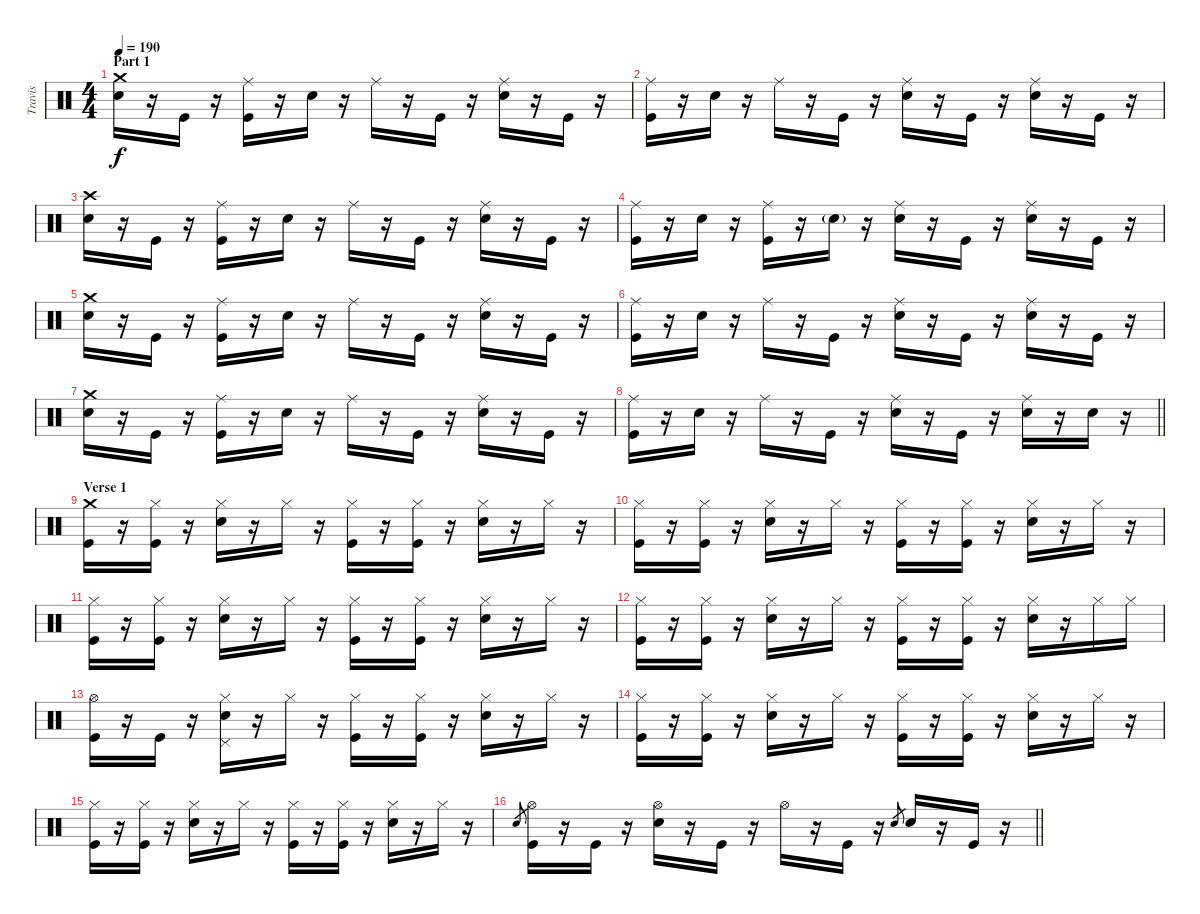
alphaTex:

\track ("Travis" "Travis") {instrument percussion}
\staff {score}
\articulation defaults
\ts (4 4)
\section ("" "Part 1")
\tempo 190
\clef neutral
\ks c
("Crash medium (hit)" "Snare (hit) 2").16{dy f} r.16 "Kick (hit)".16 r.16 ("Ride (middle)" "Kick (hit)").16 r.16 "Snare (hit) 2".16 r.16 "Ride (middle)".16 r.16 "Kick (hit)".16 r.16 ("Ride (middle)" "Snare (hit) 2").16 r.16 "Kick (hit)".16 r.16 |
("Ride (middle)" "Kick (hit)").16 r.16 "Snare (hit) 2".16 r.16 "Ride (middle)".16 r.16 "Kick (hit)".16 r.16 ("Ride (middle)" "Snare (hit) 2").16 r.16 "Kick (hit)".16 r.16 ("Ride (middle)" "Snare (hit) 2").16 r.16 "Kick (hit)".16 r.16 |
("Crash high (hit)" "Snare (hit) 2").16 r.16 "Kick (hit)".16 r.16 ("Ride (middle)" "Kick (hit)").16 r.16 "Snare (hit) 2".16 r.16 "Ride (middle)".16 r.16 "Kick (hit)".16 r.16 ("Ride (middle)" "Snare (hit) 2").16 r.16 "Kick (hit)".16 r.16 |
("Ride (middle)" "Kick (hit)").16 r.16 "Snare (hit) 2".16 r.16 ("Ride (middle)" "Kick (hit)").16 r.16 "Snare (hit) 2"{g}.16 r.16 ("Ride (middle)" "Snare (hit) 2").16 r.16 "Kick (hit)".16 r.16 ("Ride (middle)" "Snare (hit) 2").16 r.16 "Kick (hit)".16 r.16 |
("Crash medium (hit)" "Snare (hit) 2").16 r.16 "Kick (hit)".16 r.16 ("Ride (middle)" "Kick (hit)").16 r.16 "Snare (hit) 2".16 r.16 "Ride (middle)".16 r.16 "Kick (hit)".16 r.16 ("Ride (middle)" "Snare (hit) 2").16 r.16 "Kick (hit)".16 r.16 |
("Ride (middle)" "Kick (hit)").16 r.16 "Snare (hit) 2".16 r.16 "Ride (middle)".16 r.16 "Kick (hit)".16 r.16 ("Ride (middle)" "Snare (hit) 2").16 r.16 "Kick (hit)".16 r.16 ("Ride (middle)" "Snare (hit) 2").16 r.16 "Kick (hit)".16 r.16 |
("Crash medium (hit)" "Snare (hit) 2").16 r.16 "Kick (hit)".16 r.16 ("Ride (middle)" "Kick (hit)").16 r.16 "Snare (hit) 2".16 r.16 "Ride (middle)".16 r.16 "Kick (hit)".16 r.16 ("Ride (middle)" "Snare (hit) 2").16 r.16 "Kick (hit)".16 r.16 |
\barLineRight lightlight
("Ride (middle)" "Kick (hit)").16 r.16 "Snare (hit) 2".16 r.16 "Ride (middle)".16 r.16 "Kick (hit)".16 r.16 ("Ride (middle)" "Snare (hit) 2").16 r.16 "Kick (hit)".16 r.16 ("Ride (middle)" "Snare (hit) 2").16 r.16 "Snare (hit) 2".16 r.16 |
\section ("" "Verse 1")
("Crash medium (hit)" "Kick (hit)").16 r.16 ("Hi-Hat (closed)" "Kick (hit)").16 r.16 ("Hi-Hat (closed)" "Snare (hit) 2").16 r.16 "Hi-Hat (closed)".16 r.16 ("Hi-Hat (closed)" "Kick (hit)").16 r.16 ("Hi-Hat (closed)" "Kick (hit)").16 r.16 ("Hi-Hat (closed)" "Snare (hit) 2").16 r.16 "Hi-Hat (closed)".16 r.16 |
("Hi-Hat (closed)" "Kick (hit)").16 r.16 ("Hi-Hat (closed)" "Kick (hit)").16 r.16 ("Hi-Hat (closed)" "Snare (hit) 2").16 r.16 "Hi-Hat (closed)".16 r.16 ("Hi-Hat (closed)" "Kick (hit)").16 r.16 ("Hi-Hat (closed)" "Kick (hit)").16 r.16 ("Hi-Hat (closed)" "Snare (hit) 2").16 r.16 "Hi-Hat (closed)".16 r.16 |
("Hi-Hat (closed)" "Kick (hit)").16 r.16 ("Hi-Hat (closed)" "Kick (hit)").16 r.16 ("Hi-Hat (closed)" "Snare (hit) 2").16 r.16 "Hi-Hat (closed)".16 r.16 ("Hi-Hat (closed)" "Kick (hit)").16 r.16 ("Hi-Hat (closed)" "Kick (hit)").16 r.16 ("Hi-Hat (closed)" "Snare (hit) 2").16 r.16 "Hi-Hat (closed)".16 r.16 |
("Hi-Hat (closed)" "Kick (hit)").16 r.16 ("Hi-Hat (closed)" "Kick (hit)").16 r.16 ("Hi-Hat (closed)" "Snare (hit) 2").16 r.16 "Hi-Hat (closed)".16 r.16 ("Hi-Hat (closed)" "Kick (hit)").16 r.16 ("Hi-Hat (closed)" "Kick (hit)").16 r.16 ("Hi-Hat (closed)" "Snare (hit) 2").16 r.16 "Hi-Hat (closed)".16 "Hi-Hat (closed)".16 |
("Hi-Hat (open)" "Kick (hit)").16 r.16 "Kick (hit)".16 r.16 ("Hi-Hat (closed)" "Snare (hit) 2" "Pedal Hi-Hat (hit)").16 r.16 "Hi-Hat (closed)".16 r.16 ("Hi-Hat (closed)" "Kick (hit)").16 r.16 ("Hi-Hat (closed)" "Kick (hit)").16 r.16 ("Hi-Hat (closed)" "Snare (hit) 2").16 r.16 "Hi-Hat (closed)".16 r.16 |
("Hi-Hat (closed)" "Kick (hit)").16 r.16 ("Hi-Hat (closed)" "Kick (hit)").16 r.16 ("Hi-Hat (closed)" "Snare (hit) 2").16 r.16 "Hi-Hat (closed)".16 r.16 ("Hi-Hat (closed)" "Kick (hit)").16 r.16 ("Hi-Hat (closed)" "Kick (hit)").16 r.16 ("Hi-Hat (closed)" "Snare (hit) 2").16 r.16 "Hi-Hat (closed)".16 r.16 |
("Hi-Hat (closed)" "Kick (hit)").16 r.16 ("Hi-Hat (closed)" "Kick (hit)").16 r.16 ("Hi-Hat (closed)" "Snare (hit) 2").16 r.16 "Hi-Hat (closed)".16 r.16 ("Hi-Hat (closed)" "Kick (hit)").16 r.16 ("Hi-Hat (closed)" "Kick (hit)").16 r.16 ("Hi-Hat (closed)" "Snare (hit) 2").16 r.16 "Hi-Hat (closed)".16 r.16 |
\barLineRight lightlight "Snare (hit)".8{gr}
("Hi-Hat (open)" "Kick (hit)").16 r.16 "Kick (hit)".16 r.16 ("Hi-Hat (open)" "Snare (hit) 2").16 r.16 "Kick (hit)".16 r.16 "Hi-Hat (open)".16 r.16 "Kick (hit)".16 r.16 "Snare (hit)".8{gr} "Snare (hit) 2".16 r.16 "Kick (hit)".16 r.16
